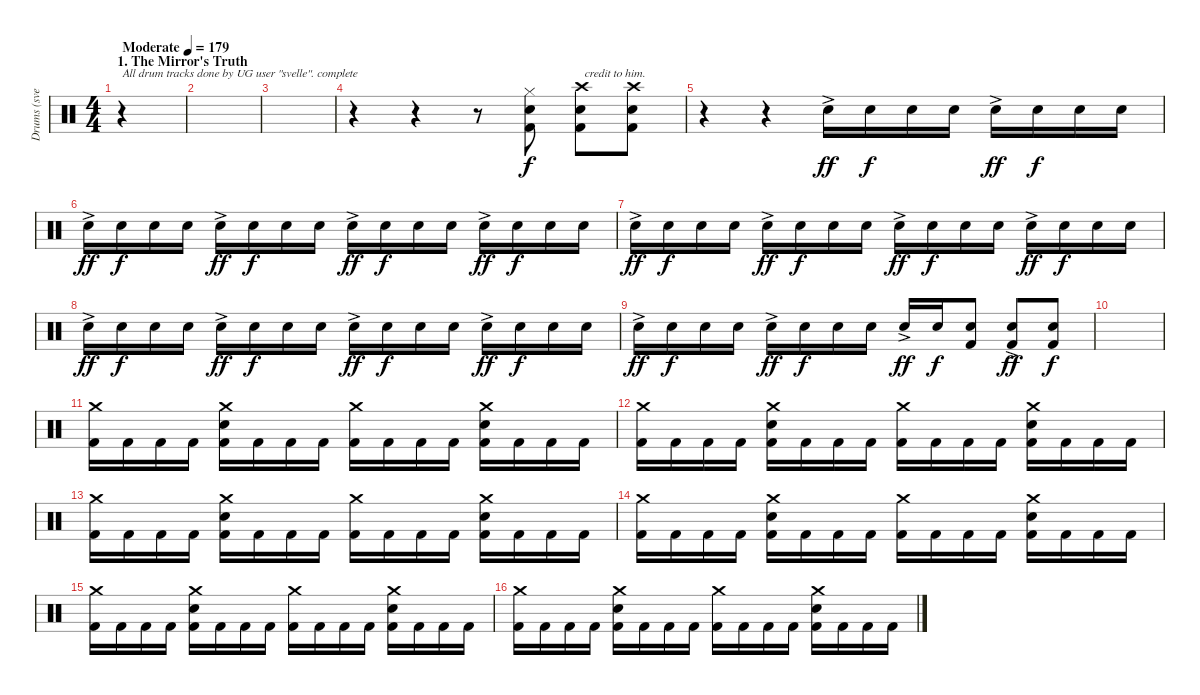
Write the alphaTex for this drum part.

\track ("Drums (svelle)" "Drums (sve") {instrument percussion}
\staff {score}
\articulation defaults
\ts (4 4)
\section ("" "1. The Mirror's Truth")
\tempo (179 "Moderate")
\clef neutral
\ks c
r.4{txt "All drum tracks done by UG user \"svelle\". complete" dy f} |
|
|
r.4 r.4 r.8 ("Hi-Hat (closed)" "Electric Snare (hit)" "Kick (hit) 2").8 ("Crash high (hit)" "Electric Snare (hit)" "Kick (hit) 2").8{txt " credit to him."} ("Crash high (hit)" "Electric Snare (hit)" "Kick (hit) 2").8 |
r.4 r.4{volume 0} "Electric Snare (hit)"{ac}.16{dy ff volume 13} "Electric Snare (hit)".16{dy f} "Electric Snare (hit)".16 "Electric Snare (hit)".16 "Electric Snare (hit)"{ac}.16{dy ff} "Electric Snare (hit)".16{dy f} "Electric Snare (hit)".16 "Electric Snare (hit)".16 |
"Electric Snare (hit)"{ac}.16{dy ff} "Electric Snare (hit)".16{dy f} "Electric Snare (hit)".16 "Electric Snare (hit)".16 "Electric Snare (hit)"{ac}.16{dy ff} "Electric Snare (hit)".16{dy f} "Electric Snare (hit)".16 "Electric Snare (hit)".16 "Electric Snare (hit)"{ac}.16{dy ff} "Electric Snare (hit)".16{dy f} "Electric Snare (hit)".16 "Electric Snare (hit)".16 "Electric Snare (hit)"{ac}.16{dy ff} "Electric Snare (hit)".16{dy f} "Electric Snare (hit)".16 "Electric Snare (hit)".16 |
"Electric Snare (hit)"{ac}.16{dy ff} "Electric Snare (hit)".16{dy f} "Electric Snare (hit)".16 "Electric Snare (hit)".16 "Electric Snare (hit)"{ac}.16{dy ff} "Electric Snare (hit)".16{dy f} "Electric Snare (hit)".16 "Electric Snare (hit)".16 "Electric Snare (hit)"{ac}.16{dy ff} "Electric Snare (hit)".16{dy f} "Electric Snare (hit)".16 "Electric Snare (hit)".16 "Electric Snare (hit)"{ac}.16{dy ff} "Electric Snare (hit)".16{dy f} "Electric Snare (hit)".16 "Electric Snare (hit)".16 |
"Electric Snare (hit)"{ac}.16{dy ff} "Electric Snare (hit)".16{dy f} "Electric Snare (hit)".16 "Electric Snare (hit)".16 "Electric Snare (hit)"{ac}.16{dy ff} "Electric Snare (hit)".16{dy f} "Electric Snare (hit)".16 "Electric Snare (hit)".16 "Electric Snare (hit)"{ac}.16{dy ff} "Electric Snare (hit)".16{dy f} "Electric Snare (hit)".16 "Electric Snare (hit)".16 "Electric Snare (hit)"{ac}.16{dy ff} "Electric Snare (hit)".16{dy f} "Electric Snare (hit)".16 "Electric Snare (hit)".16 |
"Electric Snare (hit)"{ac}.16{dy ff} "Electric Snare (hit)".16{dy f} "Electric Snare (hit)".16 "Electric Snare (hit)".16 "Electric Snare (hit)"{ac}.16{dy ff} "Electric Snare (hit)".16{dy f} "Electric Snare (hit)".16 "Electric Snare (hit)".16 "Electric Snare (hit)"{ac}.16{dy ff} "Electric Snare (hit)".16{dy f} ("Electric Snare (hit)" "Kick (hit) 2").8 ("Electric Snare (hit)"{ac} "Kick (hit) 2").8{dy ff} ("Electric Snare (hit)" "Kick (hit) 2").8{dy f} |
|
("Crash medium (hit)" "Kick (hit) 2").16 "Kick (hit) 2".16 "Kick (hit) 2".16 "Kick (hit) 2".16 ("Crash medium (hit)" "Electric Snare (hit)" "Kick (hit) 2").16 "Kick (hit) 2".16 "Kick (hit) 2".16 "Kick (hit) 2".16 ("Crash medium (hit)" "Kick (hit) 2").16 "Kick (hit) 2".16 "Kick (hit) 2".16 "Kick (hit) 2".16 ("Crash medium (hit)" "Electric Snare (hit)" "Kick (hit) 2").16 "Kick (hit) 2".16 "Kick (hit) 2".16 "Kick (hit) 2".16 |
("Crash medium (hit)" "Kick (hit) 2").16 "Kick (hit) 2".16 "Kick (hit) 2".16 "Kick (hit) 2".16 ("Crash medium (hit)" "Electric Snare (hit)" "Kick (hit) 2").16 "Kick (hit) 2".16 "Kick (hit) 2".16 "Kick (hit) 2".16 ("Crash medium (hit)" "Kick (hit) 2").16 "Kick (hit) 2".16 "Kick (hit) 2".16 "Kick (hit) 2".16 ("Crash medium (hit)" "Electric Snare (hit)" "Kick (hit) 2").16 "Kick (hit) 2".16 "Kick (hit) 2".16 "Kick (hit) 2".16 |
("Crash medium (hit)" "Kick (hit) 2").16 "Kick (hit) 2".16 "Kick (hit) 2".16 "Kick (hit) 2".16 ("Crash medium (hit)" "Electric Snare (hit)" "Kick (hit) 2").16 "Kick (hit) 2".16 "Kick (hit) 2".16 "Kick (hit) 2".16 ("Crash medium (hit)" "Kick (hit) 2").16 "Kick (hit) 2".16 "Kick (hit) 2".16 "Kick (hit) 2".16 ("Crash medium (hit)" "Electric Snare (hit)" "Kick (hit) 2").16 "Kick (hit) 2".16 "Kick (hit) 2".16 "Kick (hit) 2".16 |
("Crash medium (hit)" "Kick (hit) 2").16 "Kick (hit) 2".16 "Kick (hit) 2".16 "Kick (hit) 2".16 ("Crash medium (hit)" "Electric Snare (hit)" "Kick (hit) 2").16 "Kick (hit) 2".16 "Kick (hit) 2".16 "Kick (hit) 2".16 ("Crash medium (hit)" "Kick (hit) 2").16 "Kick (hit) 2".16 "Kick (hit) 2".16 "Kick (hit) 2".16 ("Crash medium (hit)" "Electric Snare (hit)" "Kick (hit) 2").16 "Kick (hit) 2".16 "Kick (hit) 2".16 "Kick (hit) 2".16 |
("Crash medium (hit)" "Kick (hit) 2").16 "Kick (hit) 2".16 "Kick (hit) 2".16 "Kick (hit) 2".16 ("Crash medium (hit)" "Electric Snare (hit)" "Kick (hit) 2").16 "Kick (hit) 2".16 "Kick (hit) 2".16 "Kick (hit) 2".16 ("Crash medium (hit)" "Kick (hit) 2").16 "Kick (hit) 2".16 "Kick (hit) 2".16 "Kick (hit) 2".16 ("Crash medium (hit)" "Electric Snare (hit)" "Kick (hit) 2").16 "Kick (hit) 2".16 "Kick (hit) 2".16 "Kick (hit) 2".16 |
("Crash medium (hit)" "Kick (hit) 2").16 "Kick (hit) 2".16 "Kick (hit) 2".16 "Kick (hit) 2".16 ("Crash medium (hit)" "Electric Snare (hit)" "Kick (hit) 2").16 "Kick (hit) 2".16 "Kick (hit) 2".16 "Kick (hit) 2".16 ("Crash medium (hit)" "Kick (hit) 2").16 "Kick (hit) 2".16 "Kick (hit) 2".16 "Kick (hit) 2".16 ("Crash medium (hit)" "Electric Snare (hit)" "Kick (hit) 2").16 "Kick (hit) 2".16 "Kick (hit) 2".16 "Kick (hit) 2".16
